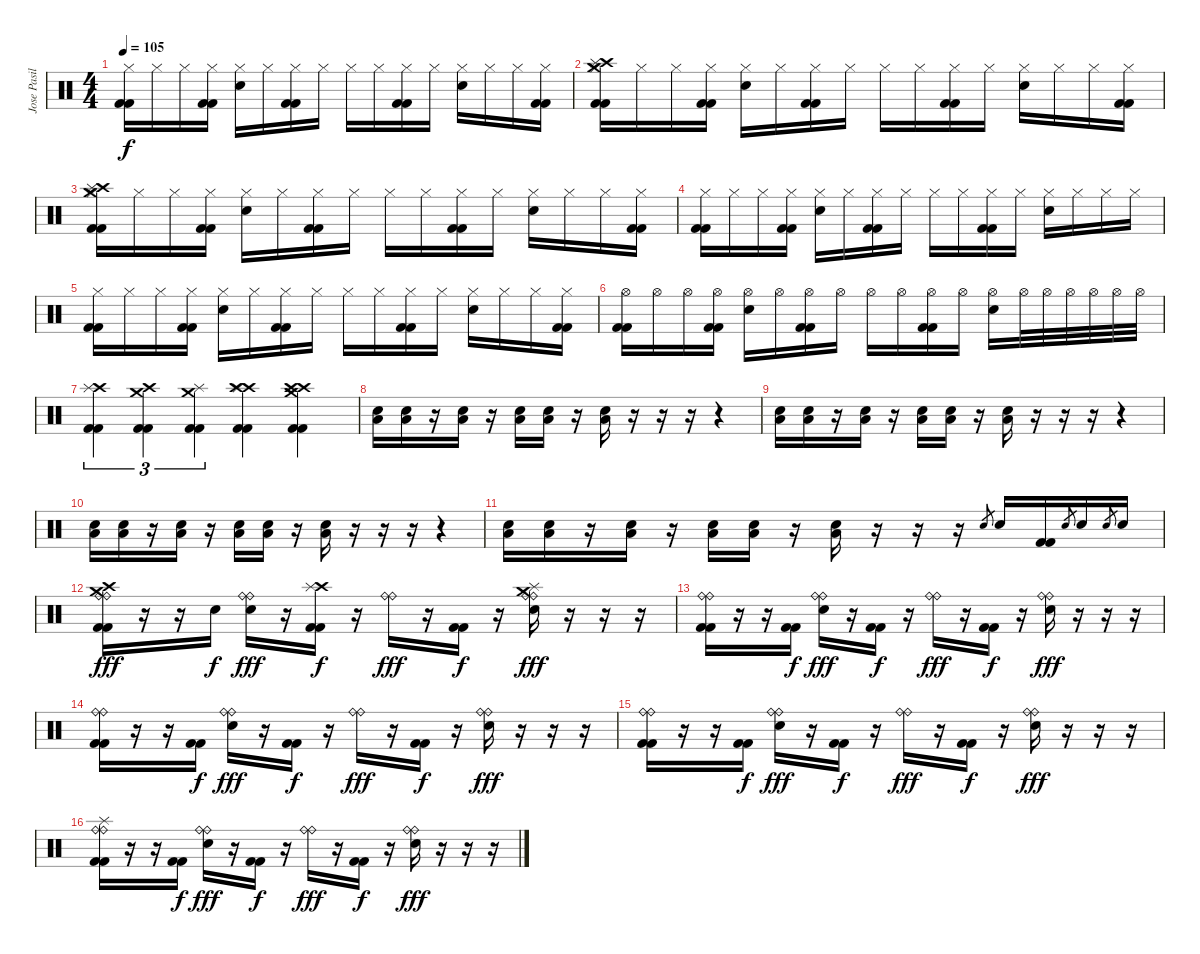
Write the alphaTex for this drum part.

\track ("Jose Pasillas" "Jose Pasil") {instrument percussion}
\staff {score}
\articulation defaults
\ts (4 4)
\tempo 105
\clef neutral
\ks c
("Hi-Hat (closed)" "Kick (hit) 2" "Kick (hit) 2").16{dy f} "Hi-Hat (closed)".16 "Hi-Hat (closed)".16 ("Hi-Hat (closed)" "Kick (hit) 2" "Kick (hit) 2").16 ("Hi-Hat (closed)" "Electric Snare (hit)").16 "Hi-Hat (closed)".16 ("Hi-Hat (closed)" "Kick (hit) 2" "Kick (hit) 2").16 "Hi-Hat (closed)".16 "Hi-Hat (closed)".16 "Hi-Hat (closed)".16 ("Hi-Hat (closed)" "Kick (hit) 2" "Kick (hit) 2").16 "Hi-Hat (closed)".16 ("Hi-Hat (closed)" "Electric Snare (hit)").16 "Hi-Hat (closed)".16 "Hi-Hat (closed)".16 ("Hi-Hat (closed)" "Kick (hit) 2" "Kick (hit) 2").16 |
("Hi-Hat (closed)" "Crash medium (hit)" "Crash high (hit)" "Splash (hit)" "Kick (hit) 2" "Kick (hit) 2").16 "Hi-Hat (closed)".16 "Hi-Hat (closed)".16 ("Hi-Hat (closed)" "Kick (hit) 2" "Kick (hit) 2").16 ("Hi-Hat (closed)" "Electric Snare (hit)").16 "Hi-Hat (closed)".16 ("Hi-Hat (closed)" "Kick (hit) 2" "Kick (hit) 2").16 "Hi-Hat (closed)".16 "Hi-Hat (closed)".16 "Hi-Hat (closed)".16 ("Hi-Hat (closed)" "Kick (hit) 2" "Kick (hit) 2").16 "Hi-Hat (closed)".16 ("Hi-Hat (closed)" "Electric Snare (hit)").16 "Hi-Hat (closed)".16 "Hi-Hat (closed)".16 ("Hi-Hat (closed)" "Kick (hit) 2" "Kick (hit) 2").16 |
("Hi-Hat (closed)" "Crash medium (hit)" "Crash high (hit)" "Splash (hit)" "Kick (hit) 2" "Kick (hit) 2").16 "Hi-Hat (closed)".16 "Hi-Hat (closed)".16 ("Hi-Hat (closed)" "Kick (hit) 2" "Kick (hit) 2").16 ("Hi-Hat (closed)" "Electric Snare (hit)").16 "Hi-Hat (closed)".16 ("Hi-Hat (closed)" "Kick (hit) 2" "Kick (hit) 2").16 "Hi-Hat (closed)".16 "Hi-Hat (closed)".16 "Hi-Hat (closed)".16 ("Hi-Hat (closed)" "Kick (hit) 2" "Kick (hit) 2").16 "Hi-Hat (closed)".16 ("Hi-Hat (closed)" "Electric Snare (hit)").16 "Hi-Hat (closed)".16 "Hi-Hat (closed)".16 ("Hi-Hat (closed)" "Kick (hit) 2" "Kick (hit) 2").16 |
("Hi-Hat (closed)" "Kick (hit) 2" "Kick (hit) 2").16 "Hi-Hat (closed)".16 "Hi-Hat (closed)".16 ("Hi-Hat (closed)" "Kick (hit) 2" "Kick (hit) 2").16 ("Hi-Hat (closed)" "Electric Snare (hit)").16 "Hi-Hat (closed)".16 ("Hi-Hat (closed)" "Kick (hit) 2" "Kick (hit) 2").16 "Hi-Hat (closed)".16 "Hi-Hat (closed)".16 "Hi-Hat (closed)".16 ("Hi-Hat (closed)" "Kick (hit) 2" "Kick (hit) 2").16 "Hi-Hat (closed)".16 ("Hi-Hat (closed)" "Electric Snare (hit)").16 "Hi-Hat (closed)".16 "Hi-Hat (closed)".16 "Hi-Hat (closed)".16 |
("Hi-Hat (closed)" "Kick (hit) 2" "Kick (hit) 2").16 "Hi-Hat (closed)".16 "Hi-Hat (closed)".16 ("Hi-Hat (closed)" "Kick (hit) 2" "Kick (hit) 2").16 ("Hi-Hat (closed)" "Electric Snare (hit)").16 "Hi-Hat (closed)".16 ("Hi-Hat (closed)" "Kick (hit) 2" "Kick (hit) 2").16 "Hi-Hat (closed)".16 "Hi-Hat (closed)".16 "Hi-Hat (closed)".16 ("Hi-Hat (closed)" "Kick (hit) 2" "Kick (hit) 2").16 "Hi-Hat (closed)".16 ("Hi-Hat (closed)" "Electric Snare (hit)").16 "Hi-Hat (closed)".16 "Hi-Hat (closed)".16 ("Hi-Hat (closed)" "Kick (hit) 2" "Kick (hit) 2").16 |
("Hi-Hat (open)" "Kick (hit) 2" "Kick (hit) 2").16 "Hi-Hat (open)".16 "Hi-Hat (open)".16 ("Hi-Hat (open)" "Kick (hit) 2" "Kick (hit) 2").16 ("Hi-Hat (open)" "Electric Snare (hit)").16 "Hi-Hat (open)".16 ("Hi-Hat (open)" "Kick (hit) 2" "Kick (hit) 2").16 "Hi-Hat (open)".16 "Hi-Hat (open)".16 "Hi-Hat (open)".16 ("Hi-Hat (open)" "Kick (hit) 2" "Kick (hit) 2").16 "Hi-Hat (open)".16 ("Hi-Hat (open)" "Electric Snare (hit)").16 "Hi-Hat (open)".32 "Hi-Hat (open)".32 "Hi-Hat (open)".32 "Hi-Hat (open)".32 "Hi-Hat (open)".32 "Hi-Hat (open)".32 |
("Crash high (hit)" "Splash (hit)" "Kick (hit) 2" "Kick (hit) 2").4{tu (3 2)} ("Crash medium (hit)" "Crash high (hit)" "Kick (hit) 2" "Kick (hit) 2").4{tu (3 2)} ("Splash (hit)" "Crash medium (hit)" "Kick (hit) 2" "Kick (hit) 2").4{tu (3 2)} ("Crash high (hit)" "Crash high (hit)" "Splash (hit)" "Kick (hit) 2" "Kick (hit) 2").4 ("Crash high (hit)" "Crash high (hit)" "Crash medium (hit)" "Kick (hit) 2" "Kick (hit) 2").4 |
("Low Tom (hit)" "Electric Snare (hit)").16 ("Low Tom (hit)" "Electric Snare (hit)").16 r.16 ("Low Tom (hit)" "Electric Snare (hit)").16 r.16 ("Low Tom (hit)" "Electric Snare (hit)").16 ("Low Tom (hit)" "Electric Snare (hit)").16 r.16 ("Low Tom (hit)" "Electric Snare (hit)").16 r.16 r.16 r.16 r.4 |
("Low Tom (hit)" "Electric Snare (hit)").16 ("Low Tom (hit)" "Electric Snare (hit)").16 r.16 ("Low Tom (hit)" "Electric Snare (hit)").16 r.16 ("Low Tom (hit)" "Electric Snare (hit)").16 ("Low Tom (hit)" "Electric Snare (hit)").16 r.16 ("Low Tom (hit)" "Electric Snare (hit)").16 r.16 r.16 r.16 r.4 |
("Low Tom (hit)" "Electric Snare (hit)").16 ("Low Tom (hit)" "Electric Snare (hit)").16 r.16 ("Low Tom (hit)" "Electric Snare (hit)").16 r.16 ("Low Tom (hit)" "Electric Snare (hit)").16 ("Low Tom (hit)" "Electric Snare (hit)").16 r.16 ("Low Tom (hit)" "Electric Snare (hit)").16 r.16 r.16 r.16 r.4 |
("Low Tom (hit)" "Electric Snare (hit)").16 ("Low Tom (hit)" "Electric Snare (hit)").16 r.16 ("Low Tom (hit)" "Electric Snare (hit)").16 r.16 ("Low Tom (hit)" "Electric Snare (hit)").16 ("Low Tom (hit)" "Electric Snare (hit)").16 r.16 ("Low Tom (hit)" "Electric Snare (hit)").16 r.16 r.16 r.16 "Electric Snare (hit)".8{gr} "Electric Snare (hit)".16 ("Kick (hit) 2" "Kick (hit) 2").16 "Electric Snare (hit)".8{gr} "Electric Snare (hit)".16 "Electric Snare (hit)".8{gr} "Electric Snare (hit)".16 |
("Ride (bell)" "Ride (bell)" "Crash high (hit)" "Crash medium (hit)" "Kick (hit) 2" "Kick (hit) 2").16{dy fff} r.16 r.16 "Electric Snare (hit)".16{dy f} ("Ride (bell)" "Ride (bell)" "Electric Snare (hit)").16{dy fff} r.16 ("Crash high (hit)" "Splash (hit)" "Kick (hit) 2" "Kick (hit) 2").16{dy f} r.16 ("Ride (bell)" "Ride (bell)").16{dy fff} r.16 ("Kick (hit) 2" "Kick (hit) 2").16{dy f} r.16 ("Ride (bell)" "Ride (bell)" "Crash medium (hit)" "Splash (hit)" "Electric Snare (hit)").16{dy fff} r.16 r.16 r.16 |
("Ride (bell)" "Ride (bell)" "Kick (hit) 2" "Kick (hit) 2").16 r.16 r.16 ("Kick (hit) 2" "Kick (hit) 2").16{dy f} ("Ride (bell)" "Ride (bell)" "Electric Snare (hit)").16{dy fff} r.16 ("Kick (hit) 2" "Kick (hit) 2").16{dy f} r.16 ("Ride (bell)" "Ride (bell)").16{dy fff} r.16 ("Kick (hit) 2" "Kick (hit) 2").16{dy f} r.16 ("Ride (bell)" "Ride (bell)" "Electric Snare (hit)").16{dy fff} r.16 r.16 r.16 |
("Ride (bell)" "Ride (bell)" "Kick (hit) 2" "Kick (hit) 2").16 r.16 r.16 ("Kick (hit) 2" "Kick (hit) 2").16{dy f} ("Ride (bell)" "Ride (bell)" "Electric Snare (hit)").16{dy fff} r.16 ("Kick (hit) 2" "Kick (hit) 2").16{dy f} r.16 ("Ride (bell)" "Ride (bell)").16{dy fff} r.16 ("Kick (hit) 2" "Kick (hit) 2").16{dy f} r.16 ("Ride (bell)" "Ride (bell)" "Electric Snare (hit)").16{dy fff} r.16 r.16 r.16 |
("Ride (bell)" "Ride (bell)" "Kick (hit) 2" "Kick (hit) 2").16 r.16 r.16 ("Kick (hit) 2" "Kick (hit) 2").16{dy f} ("Ride (bell)" "Ride (bell)" "Electric Snare (hit)").16{dy fff} r.16 ("Kick (hit) 2" "Kick (hit) 2").16{dy f} r.16 ("Ride (bell)" "Ride (bell)").16{dy fff} r.16 ("Kick (hit) 2" "Kick (hit) 2").16{dy f} r.16 ("Ride (bell)" "Ride (bell)" "Electric Snare (hit)").16{dy fff} r.16 r.16 r.16 |
("Ride (bell)" "Ride (bell)" "Splash (hit)" "Kick (hit) 2" "Kick (hit) 2").16 r.16 r.16 ("Kick (hit) 2" "Kick (hit) 2").16{dy f} ("Ride (bell)" "Ride (bell)" "Electric Snare (hit)").16{dy fff} r.16 ("Kick (hit) 2" "Kick (hit) 2").16{dy f} r.16 ("Ride (bell)" "Ride (bell)").16{dy fff} r.16 ("Kick (hit) 2" "Kick (hit) 2").16{dy f} r.16 ("Ride (bell)" "Ride (bell)" "Electric Snare (hit)").16{dy fff} r.16 r.16 r.16
